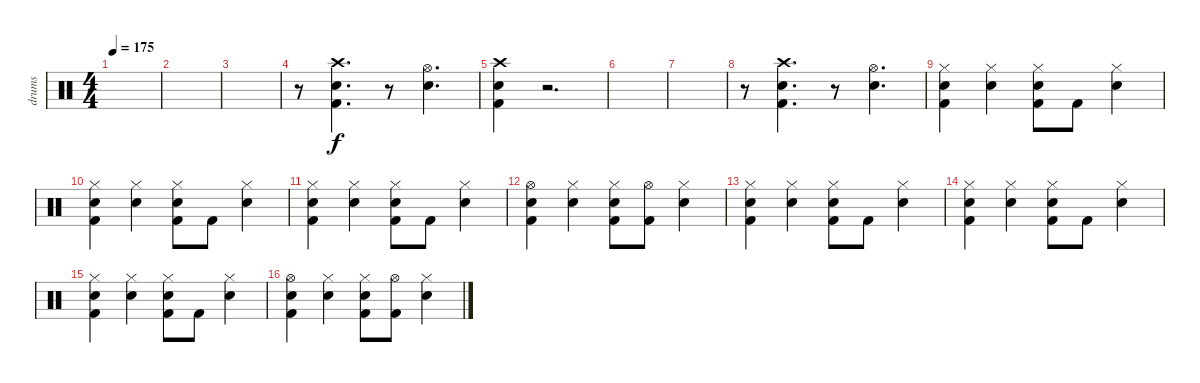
\track ("drums" "drums") {instrument percussion}
\staff {score}
\articulation defaults
\ts (4 4)
\tempo 175
\clef neutral
\ks c
|
|
|
r.8 ("Crash high (hit)" "Snare (hit) 2" "Kick (hit) 2").4{d} r.8 ("Hi-Hat (open)" "Snare (hit) 2").4{d} |
("Crash high (hit)" "Snare (hit) 2" "Kick (hit) 2").4 r.2{d} |
|
|
r.8 ("Crash high (hit)" "Snare (hit) 2" "Kick (hit) 2").4{d} r.8 ("Hi-Hat (open)" "Snare (hit) 2").4{d} |
("Hi-Hat (closed)" "Snare (hit) 2" "Kick (hit) 2").4 ("Hi-Hat (closed)" "Snare (hit) 2").4 ("Hi-Hat (closed)" "Snare (hit) 2" "Kick (hit) 2").8 "Kick (hit) 2".8 ("Hi-Hat (closed)" "Snare (hit) 2").4 |
("Hi-Hat (closed)" "Snare (hit) 2" "Kick (hit) 2").4 ("Hi-Hat (closed)" "Snare (hit) 2").4 ("Hi-Hat (closed)" "Snare (hit) 2" "Kick (hit) 2").8 "Kick (hit) 2".8 ("Hi-Hat (closed)" "Snare (hit) 2").4 |
("Hi-Hat (closed)" "Snare (hit) 2" "Kick (hit) 2").4 ("Hi-Hat (closed)" "Snare (hit) 2").4 ("Hi-Hat (closed)" "Snare (hit) 2" "Kick (hit) 2").8 "Kick (hit) 2".8 ("Hi-Hat (closed)" "Snare (hit) 2").4 |
("Hi-Hat (open)" "Snare (hit) 2" "Kick (hit) 2").4 ("Hi-Hat (closed)" "Snare (hit) 2").4 ("Hi-Hat (closed)" "Snare (hit) 2" "Kick (hit) 2").8 ("Hi-Hat (open)" "Kick (hit) 2").8 ("Hi-Hat (closed)" "Snare (hit) 2").4 |
("Hi-Hat (closed)" "Snare (hit) 2" "Kick (hit) 2").4 ("Hi-Hat (closed)" "Snare (hit) 2").4 ("Hi-Hat (closed)" "Snare (hit) 2" "Kick (hit) 2").8 "Kick (hit) 2".8 ("Hi-Hat (closed)" "Snare (hit) 2").4 |
("Hi-Hat (closed)" "Snare (hit) 2" "Kick (hit) 2").4 ("Hi-Hat (closed)" "Snare (hit) 2").4 ("Hi-Hat (closed)" "Snare (hit) 2" "Kick (hit) 2").8 "Kick (hit) 2".8 ("Hi-Hat (closed)" "Snare (hit) 2").4 |
("Hi-Hat (closed)" "Snare (hit) 2" "Kick (hit) 2").4 ("Hi-Hat (closed)" "Snare (hit) 2").4 ("Hi-Hat (closed)" "Snare (hit) 2" "Kick (hit) 2").8 "Kick (hit) 2".8 ("Hi-Hat (closed)" "Snare (hit) 2").4 |
("Hi-Hat (open)" "Snare (hit) 2" "Kick (hit) 2").4 ("Hi-Hat (closed)" "Snare (hit) 2").4 ("Hi-Hat (closed)" "Snare (hit) 2" "Kick (hit) 2").8 ("Hi-Hat (open)" "Kick (hit) 2").8 ("Hi-Hat (closed)" "Snare (hit) 2").4
